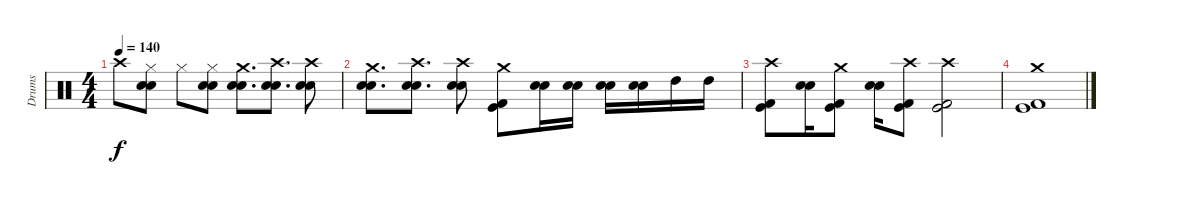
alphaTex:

\track ("Drums" "Drums") {instrument percussion}
\staff {score}
\articulation defaults
\ts (4 4)
\tempo 140
\clef neutral
\ks c "Crash high (hit)".8{dy f}
("Hi-Hat (closed)" "Electric Snare (hit)" "Snare (hit) 2").8 "Hi-Hat (closed)".8 ("Hi-Hat (closed)" "Electric Snare (hit)" "Snare (hit) 2").8 ("Crash medium (hit)" "Electric Snare (hit)" "Snare (hit) 2").8{d} ("Crash high (hit)" "Electric Snare (hit)" "Snare (hit) 2").8{d} ("Crash high (hit)" "Electric Snare (hit)" "Snare (hit) 2").8 |
("Crash medium (hit)" "Electric Snare (hit)" "Snare (hit) 2").8{d} ("Crash high (hit)" "Electric Snare (hit)" "Snare (hit) 2").8{d} ("Crash high (hit)" "Electric Snare (hit)" "Snare (hit) 2").8 ("Kick (hit) 2" "Kick (hit)" "Crash medium (hit)").8 ("Electric Snare (hit)" "Snare (hit) 2").16 ("Electric Snare (hit)" "Snare (hit) 2").16 ("Electric Snare (hit)" "Snare (hit) 2").16 ("Electric Snare (hit)" "Snare (hit) 2").16 "High Tom (hit)".16 "High Tom (hit)".16 |
("Kick (hit) 2" "Kick (hit)" "Crash high (hit)").8 ("Electric Snare (hit)" "Snare (hit) 2").16 ("Kick (hit) 2" "Kick (hit)" "Crash medium (hit)").8 ("Electric Snare (hit)" "Snare (hit) 2").16 ("Kick (hit) 2" "Kick (hit)" "Crash high (hit)").8 ("Kick (hit) 2" "Kick (hit)" "Crash high (hit)").2 |
("Kick (hit) 2" "Kick (hit)" "Crash medium (hit)").1
